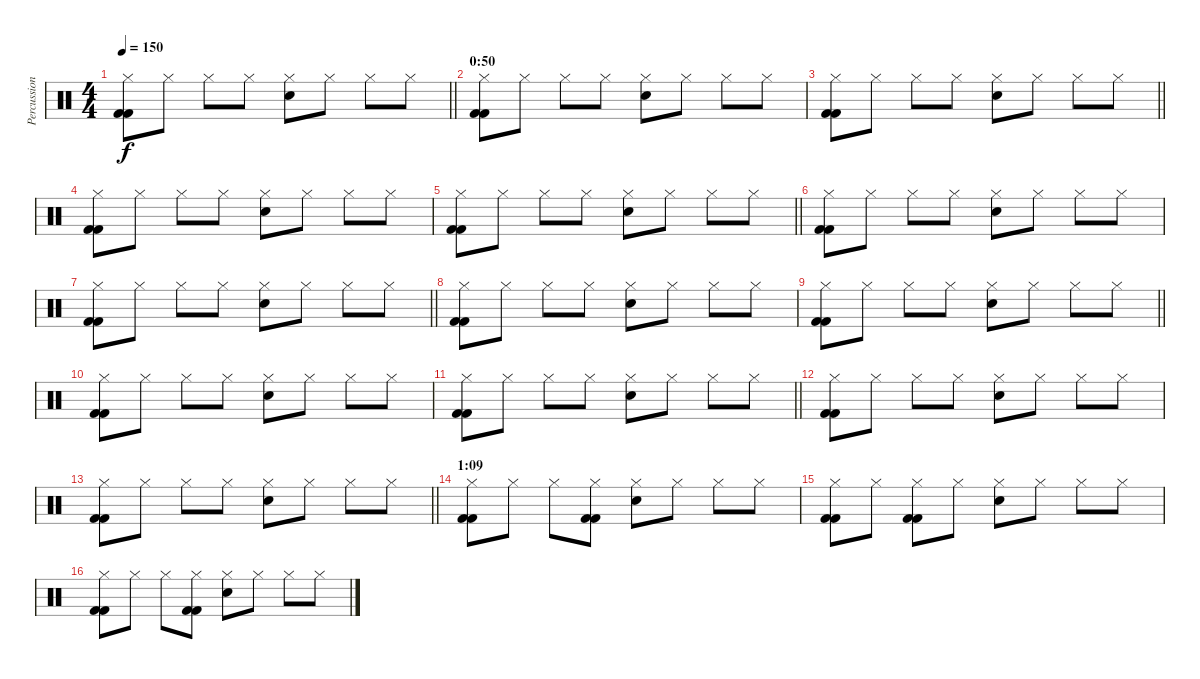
\track ("Percussion" "Percussion") {instrument percussion}
\staff {score}
\articulation defaults
\ts (4 4)
\tempo 150
\clef neutral
\barLineRight lightlight
\ks c
("Kick (hit) 2" "Kick (hit) 2" "Hi-Hat (closed)").8{dy f} "Hi-Hat (closed)".8 "Hi-Hat (closed)".8 "Hi-Hat (closed)".8 ("Electric Snare (hit)" "Hi-Hat (closed)").8 "Hi-Hat (closed)".8 "Hi-Hat (closed)".8 "Hi-Hat (closed)".8 |
\section ("" "0:50")
("Kick (hit) 2" "Kick (hit) 2" "Hi-Hat (closed)").8 "Hi-Hat (closed)".8 "Hi-Hat (closed)".8 "Hi-Hat (closed)".8 ("Electric Snare (hit)" "Hi-Hat (closed)").8 "Hi-Hat (closed)".8 "Hi-Hat (closed)".8 "Hi-Hat (closed)".8 |
\barLineRight lightlight
("Kick (hit) 2" "Kick (hit) 2" "Hi-Hat (closed)").8 "Hi-Hat (closed)".8 "Hi-Hat (closed)".8 "Hi-Hat (closed)".8 ("Electric Snare (hit)" "Hi-Hat (closed)").8 "Hi-Hat (closed)".8 "Hi-Hat (closed)".8 "Hi-Hat (closed)".8 |
("Kick (hit) 2" "Kick (hit) 2" "Hi-Hat (closed)").8 "Hi-Hat (closed)".8 "Hi-Hat (closed)".8 "Hi-Hat (closed)".8 ("Electric Snare (hit)" "Hi-Hat (closed)").8 "Hi-Hat (closed)".8 "Hi-Hat (closed)".8 "Hi-Hat (closed)".8 |
\barLineRight lightlight
("Kick (hit) 2" "Kick (hit) 2" "Hi-Hat (closed)").8 "Hi-Hat (closed)".8 "Hi-Hat (closed)".8 "Hi-Hat (closed)".8 ("Electric Snare (hit)" "Hi-Hat (closed)").8 "Hi-Hat (closed)".8 "Hi-Hat (closed)".8 "Hi-Hat (closed)".8 |
("Kick (hit) 2" "Kick (hit) 2" "Hi-Hat (closed)").8 "Hi-Hat (closed)".8 "Hi-Hat (closed)".8 "Hi-Hat (closed)".8 ("Electric Snare (hit)" "Hi-Hat (closed)").8 "Hi-Hat (closed)".8 "Hi-Hat (closed)".8 "Hi-Hat (closed)".8 |
\barLineRight lightlight
("Kick (hit) 2" "Kick (hit) 2" "Hi-Hat (closed)").8 "Hi-Hat (closed)".8 "Hi-Hat (closed)".8 "Hi-Hat (closed)".8 ("Electric Snare (hit)" "Hi-Hat (closed)").8 "Hi-Hat (closed)".8 "Hi-Hat (closed)".8 "Hi-Hat (closed)".8 |
("Kick (hit) 2" "Kick (hit) 2" "Hi-Hat (closed)").8 "Hi-Hat (closed)".8 "Hi-Hat (closed)".8 "Hi-Hat (closed)".8 ("Electric Snare (hit)" "Hi-Hat (closed)").8 "Hi-Hat (closed)".8 "Hi-Hat (closed)".8 "Hi-Hat (closed)".8 |
\barLineRight lightlight
("Kick (hit) 2" "Kick (hit) 2" "Hi-Hat (closed)").8 "Hi-Hat (closed)".8 "Hi-Hat (closed)".8 "Hi-Hat (closed)".8 ("Electric Snare (hit)" "Hi-Hat (closed)").8 "Hi-Hat (closed)".8 "Hi-Hat (closed)".8 "Hi-Hat (closed)".8 |
("Kick (hit) 2" "Kick (hit) 2" "Hi-Hat (closed)").8 "Hi-Hat (closed)".8 "Hi-Hat (closed)".8 "Hi-Hat (closed)".8 ("Electric Snare (hit)" "Hi-Hat (closed)").8 "Hi-Hat (closed)".8 "Hi-Hat (closed)".8 "Hi-Hat (closed)".8 |
\barLineRight lightlight
("Kick (hit) 2" "Kick (hit) 2" "Hi-Hat (closed)").8 "Hi-Hat (closed)".8 "Hi-Hat (closed)".8 "Hi-Hat (closed)".8 ("Electric Snare (hit)" "Hi-Hat (closed)").8 "Hi-Hat (closed)".8 "Hi-Hat (closed)".8 "Hi-Hat (closed)".8 |
("Kick (hit) 2" "Kick (hit) 2" "Hi-Hat (closed)").8 "Hi-Hat (closed)".8 "Hi-Hat (closed)".8 "Hi-Hat (closed)".8 ("Electric Snare (hit)" "Hi-Hat (closed)").8 "Hi-Hat (closed)".8 "Hi-Hat (closed)".8 "Hi-Hat (closed)".8 |
\barLineRight lightlight
("Kick (hit) 2" "Kick (hit) 2" "Hi-Hat (closed)").8 "Hi-Hat (closed)".8 "Hi-Hat (closed)".8 "Hi-Hat (closed)".8 ("Electric Snare (hit)" "Hi-Hat (closed)").8 "Hi-Hat (closed)".8 "Hi-Hat (closed)".8 "Hi-Hat (closed)".8 |
\section ("" "1:09")
("Kick (hit) 2" "Kick (hit) 2" "Hi-Hat (closed)").8 "Hi-Hat (closed)".8 "Hi-Hat (closed)".8 ("Kick (hit) 2" "Kick (hit) 2" "Hi-Hat (closed)").8 ("Electric Snare (hit)" "Hi-Hat (closed)").8 "Hi-Hat (closed)".8 "Hi-Hat (closed)".8 "Hi-Hat (closed)".8 |
("Kick (hit) 2" "Kick (hit) 2" "Hi-Hat (closed)").8 "Hi-Hat (closed)".8 ("Kick (hit) 2" "Kick (hit) 2" "Hi-Hat (closed)").8 "Hi-Hat (closed)".8 ("Electric Snare (hit)" "Hi-Hat (closed)").8 "Hi-Hat (closed)".8 "Hi-Hat (closed)".8 "Hi-Hat (closed)".8 |
("Kick (hit) 2" "Kick (hit) 2" "Hi-Hat (closed)").8 "Hi-Hat (closed)".8 "Hi-Hat (closed)".8 ("Kick (hit) 2" "Kick (hit) 2" "Hi-Hat (closed)").8 ("Electric Snare (hit)" "Hi-Hat (closed)").8 "Hi-Hat (closed)".8 "Hi-Hat (closed)".8 "Hi-Hat (closed)".8
